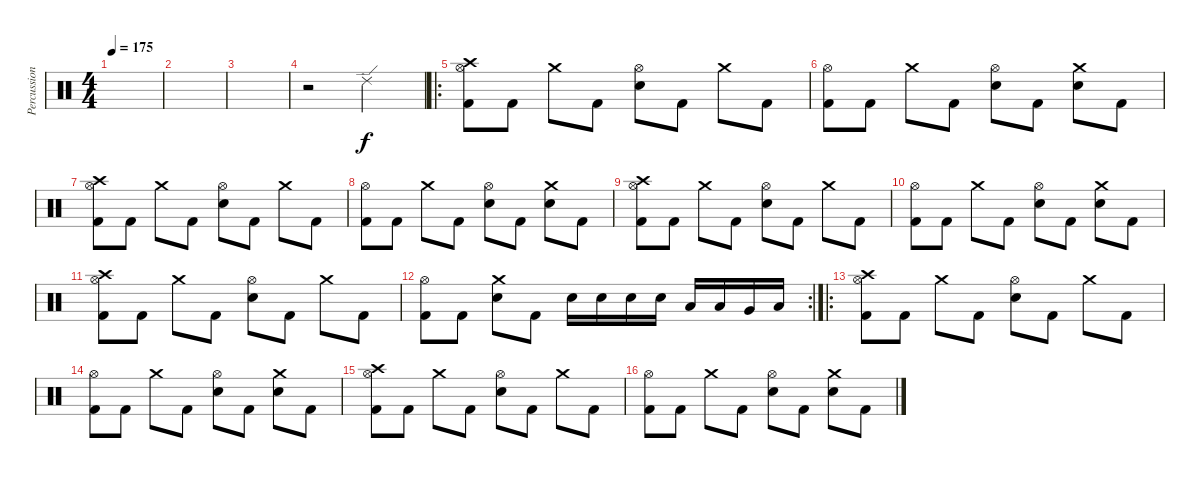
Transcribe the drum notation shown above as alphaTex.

\track ("Percussion" "Percussion") {instrument percussion}
\staff {score}
\articulation defaults
\ts (4 4)
\tempo 175
\clef neutral
\ks c
|
|
|
r.2 "Ride (edge) 2".2 |
\ro
("Hi-Hat (open)" "Crash high (hit)" "Kick (hit) 2").8 "Kick (hit) 2".8 "Crash medium (hit)".8 "Kick (hit) 2".8 ("Hi-Hat (open)" "Electric Snare (hit)").8 "Kick (hit) 2".8 "Crash medium (hit)".8 "Kick (hit) 2".8 |
("Hi-Hat (open)" "Kick (hit) 2").8 "Kick (hit) 2".8 "Crash medium (hit)".8 "Kick (hit) 2".8 ("Hi-Hat (open)" "Electric Snare (hit)").8 "Kick (hit) 2".8 ("Crash medium (hit)" "Electric Snare (hit)").8 "Kick (hit) 2".8 |
("Hi-Hat (open)" "Crash high (hit)" "Kick (hit) 2").8 "Kick (hit) 2".8 "Crash medium (hit)".8 "Kick (hit) 2".8 ("Hi-Hat (open)" "Electric Snare (hit)").8 "Kick (hit) 2".8 "Crash medium (hit)".8 "Kick (hit) 2".8 |
("Hi-Hat (open)" "Kick (hit) 2").8 "Kick (hit) 2".8 "Crash medium (hit)".8 "Kick (hit) 2".8 ("Hi-Hat (open)" "Electric Snare (hit)").8 "Kick (hit) 2".8 ("Crash medium (hit)" "Electric Snare (hit)").8 "Kick (hit) 2".8 |
("Hi-Hat (open)" "Crash high (hit)" "Kick (hit) 2").8 "Kick (hit) 2".8 "Crash medium (hit)".8 "Kick (hit) 2".8 ("Hi-Hat (open)" "Electric Snare (hit)").8 "Kick (hit) 2".8 "Crash medium (hit)".8 "Kick (hit) 2".8 |
("Hi-Hat (open)" "Kick (hit) 2").8 "Kick (hit) 2".8 "Crash medium (hit)".8 "Kick (hit) 2".8 ("Hi-Hat (open)" "Electric Snare (hit)").8 "Kick (hit) 2".8 ("Crash medium (hit)" "Electric Snare (hit)").8 "Kick (hit) 2".8 |
("Hi-Hat (open)" "Crash high (hit)" "Kick (hit) 2").8 "Kick (hit) 2".8 "Crash medium (hit)".8 "Kick (hit) 2".8 ("Hi-Hat (open)" "Electric Snare (hit)").8 "Kick (hit) 2".8 "Crash medium (hit)".8 "Kick (hit) 2".8 |
\rc 2
("Hi-Hat (open)" "Kick (hit) 2").8 "Kick (hit) 2".8 ("Crash medium (hit)" "Electric Snare (hit)").8 "Kick (hit) 2".8 "Electric Snare (hit)".16 "Electric Snare (hit)".16 "Electric Snare (hit)".16 "Electric Snare (hit)".16 "Low Tom (hit)".16 "Low Tom (hit)".16 "Very Low Tom (hit)".16 "Low Floor Tom (hit)".16 |
\ro
("Hi-Hat (open)" "Crash high (hit)" "Kick (hit) 2").8 "Kick (hit) 2".8 "Crash medium (hit)".8 "Kick (hit) 2".8 ("Hi-Hat (open)" "Electric Snare (hit)").8 "Kick (hit) 2".8 "Crash medium (hit)".8 "Kick (hit) 2".8 |
("Hi-Hat (open)" "Kick (hit) 2").8 "Kick (hit) 2".8 "Crash medium (hit)".8 "Kick (hit) 2".8 ("Hi-Hat (open)" "Electric Snare (hit)").8 "Kick (hit) 2".8 ("Crash medium (hit)" "Electric Snare (hit)").8 "Kick (hit) 2".8 |
("Hi-Hat (open)" "Crash high (hit)" "Kick (hit) 2").8 "Kick (hit) 2".8 "Crash medium (hit)".8 "Kick (hit) 2".8 ("Hi-Hat (open)" "Electric Snare (hit)").8 "Kick (hit) 2".8 "Crash medium (hit)".8 "Kick (hit) 2".8 |
("Hi-Hat (open)" "Kick (hit) 2").8 "Kick (hit) 2".8 "Crash medium (hit)".8 "Kick (hit) 2".8 ("Hi-Hat (open)" "Electric Snare (hit)").8 "Kick (hit) 2".8 ("Crash medium (hit)" "Electric Snare (hit)").8 "Kick (hit) 2".8
